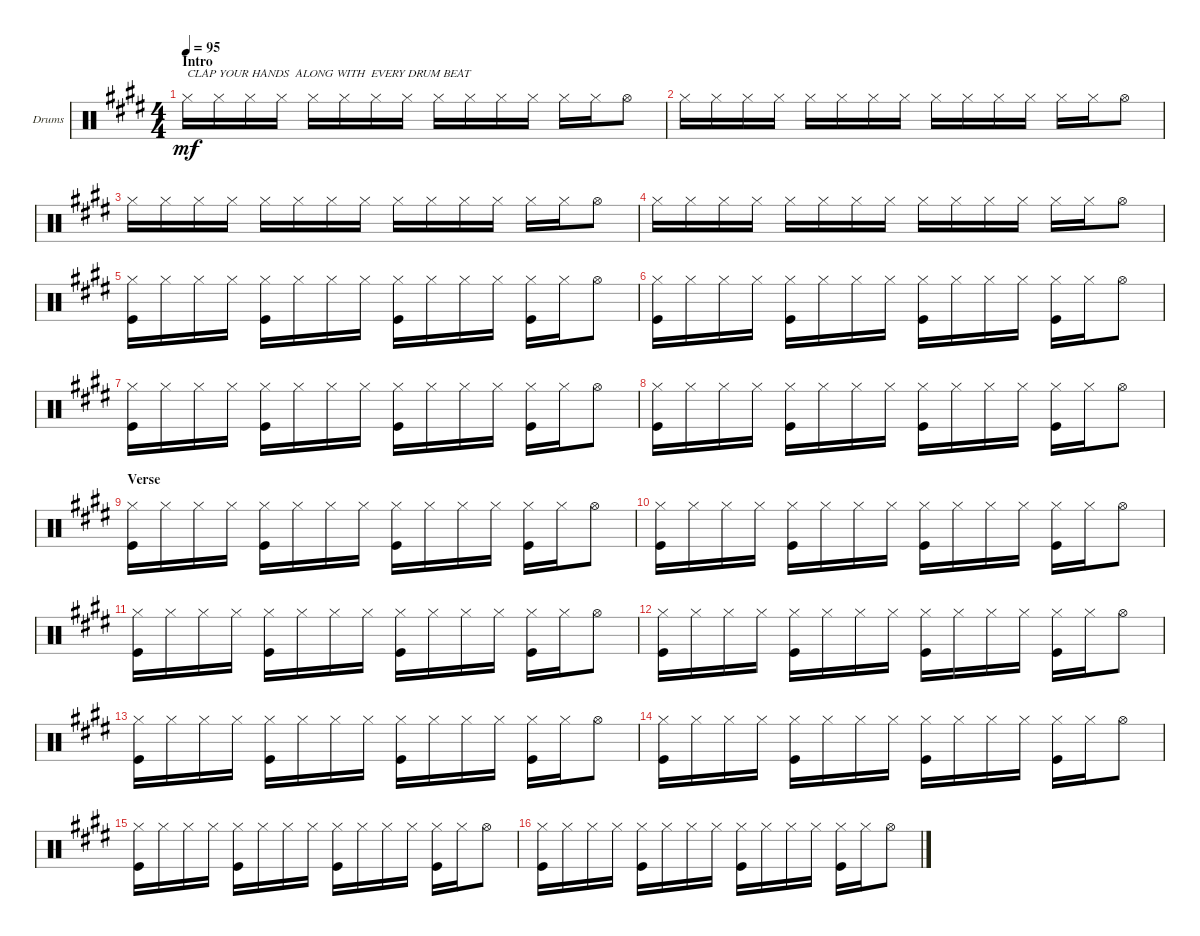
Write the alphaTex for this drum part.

\defaultSystemsLayout 4
\bracketExtendMode groupsimilarinstruments
\firstSystemTrackNameOrientation horizontal
\otherSystemsTrackNameOrientation horizontal
\track ("Drumkit" "Drums") {solo instrument percussion}
\staff {score}
\articulation defaults
\ts (4 4)
\section ("" "Intro")
\tempo 95
\clef neutral
\ks e "Hi-Hat (closed)".16{txt "CLAP YOUR HANDS  ALONG WITH  EVERY DRUM BEAT" dy mf} "Hi-Hat (closed)".16 "Hi-Hat (closed)".16 "Hi-Hat (closed)".16 "Hi-Hat (closed)".16 "Hi-Hat (closed)".16 "Hi-Hat (closed)".16 "Hi-Hat (closed)".16 "Hi-Hat (closed)".16 "Hi-Hat (closed)".16 "Hi-Hat (closed)".16 "Hi-Hat (closed)".16 "Hi-Hat (closed)".16 "Hi-Hat (closed)".16 "Hi-Hat (open)".8
|
"Hi-Hat (closed)".16 "Hi-Hat (closed)".16 "Hi-Hat (closed)".16 "Hi-Hat (closed)".16 "Hi-Hat (closed)".16 "Hi-Hat (closed)".16 "Hi-Hat (closed)".16 "Hi-Hat (closed)".16 "Hi-Hat (closed)".16 "Hi-Hat (closed)".16 "Hi-Hat (closed)".16 "Hi-Hat (closed)".16 "Hi-Hat (closed)".16 "Hi-Hat (closed)".16 "Hi-Hat (open)".8 |
"Hi-Hat (closed)".16 "Hi-Hat (closed)".16 "Hi-Hat (closed)".16 "Hi-Hat (closed)".16 "Hi-Hat (closed)".16 "Hi-Hat (closed)".16 "Hi-Hat (closed)".16 "Hi-Hat (closed)".16 "Hi-Hat (closed)".16 "Hi-Hat (closed)".16 "Hi-Hat (closed)".16 "Hi-Hat (closed)".16 "Hi-Hat (closed)".16 "Hi-Hat (closed)".16 "Hi-Hat (open)".8 |
"Hi-Hat (closed)".16 "Hi-Hat (closed)".16 "Hi-Hat (closed)".16 "Hi-Hat (closed)".16 "Hi-Hat (closed)".16 "Hi-Hat (closed)".16 "Hi-Hat (closed)".16 "Hi-Hat (closed)".16 "Hi-Hat (closed)".16 "Hi-Hat (closed)".16 "Hi-Hat (closed)".16 "Hi-Hat (closed)".16 "Hi-Hat (closed)".16 "Hi-Hat (closed)".16 "Hi-Hat (open)".8 |
("Kick (hit)" "Hi-Hat (closed)").16 "Hi-Hat (closed)".16 "Hi-Hat (closed)".16 "Hi-Hat (closed)".16 ("Hi-Hat (closed)" "Kick (hit)").16 "Hi-Hat (closed)".16 "Hi-Hat (closed)".16 "Hi-Hat (closed)".16 ("Hi-Hat (closed)" "Kick (hit)").16 "Hi-Hat (closed)".16 "Hi-Hat (closed)".16 "Hi-Hat (closed)".16 ("Hi-Hat (closed)" "Kick (hit)").16 "Hi-Hat (closed)".16 "Hi-Hat (open)".8 |
("Kick (hit)" "Hi-Hat (closed)").16 "Hi-Hat (closed)".16 "Hi-Hat (closed)".16 "Hi-Hat (closed)".16 ("Hi-Hat (closed)" "Kick (hit)").16 "Hi-Hat (closed)".16 "Hi-Hat (closed)".16 "Hi-Hat (closed)".16 ("Hi-Hat (closed)" "Kick (hit)").16 "Hi-Hat (closed)".16 "Hi-Hat (closed)".16 "Hi-Hat (closed)".16 ("Hi-Hat (closed)" "Kick (hit)").16 "Hi-Hat (closed)".16 "Hi-Hat (open)".8 |
("Kick (hit)" "Hi-Hat (closed)").16 "Hi-Hat (closed)".16 "Hi-Hat (closed)".16 "Hi-Hat (closed)".16 ("Hi-Hat (closed)" "Kick (hit)").16 "Hi-Hat (closed)".16 "Hi-Hat (closed)".16 "Hi-Hat (closed)".16 ("Hi-Hat (closed)" "Kick (hit)").16 "Hi-Hat (closed)".16 "Hi-Hat (closed)".16 "Hi-Hat (closed)".16 ("Hi-Hat (closed)" "Kick (hit)").16 "Hi-Hat (closed)".16 "Hi-Hat (open)".8 |
("Kick (hit)" "Hi-Hat (closed)").16 "Hi-Hat (closed)".16 "Hi-Hat (closed)".16 "Hi-Hat (closed)".16 ("Hi-Hat (closed)" "Kick (hit)").16 "Hi-Hat (closed)".16 "Hi-Hat (closed)".16 "Hi-Hat (closed)".16 ("Hi-Hat (closed)" "Kick (hit)").16 "Hi-Hat (closed)".16 "Hi-Hat (closed)".16 "Hi-Hat (closed)".16 ("Hi-Hat (closed)" "Kick (hit)").16 "Hi-Hat (closed)".16 "Hi-Hat (open)".8 |
\section ("" "Verse")
("Kick (hit)" "Hi-Hat (closed)").16 "Hi-Hat (closed)".16 "Hi-Hat (closed)".16 "Hi-Hat (closed)".16 ("Hi-Hat (closed)" "Kick (hit)").16 "Hi-Hat (closed)".16 "Hi-Hat (closed)".16 "Hi-Hat (closed)".16 ("Hi-Hat (closed)" "Kick (hit)").16 "Hi-Hat (closed)".16 "Hi-Hat (closed)".16 "Hi-Hat (closed)".16 ("Hi-Hat (closed)" "Kick (hit)").16 "Hi-Hat (closed)".16 "Hi-Hat (open)".8 |
("Kick (hit)" "Hi-Hat (closed)").16 "Hi-Hat (closed)".16 "Hi-Hat (closed)".16 "Hi-Hat (closed)".16 ("Hi-Hat (closed)" "Kick (hit)").16 "Hi-Hat (closed)".16 "Hi-Hat (closed)".16 "Hi-Hat (closed)".16 ("Hi-Hat (closed)" "Kick (hit)").16 "Hi-Hat (closed)".16 "Hi-Hat (closed)".16 "Hi-Hat (closed)".16 ("Hi-Hat (closed)" "Kick (hit)").16 "Hi-Hat (closed)".16 "Hi-Hat (open)".8 |
("Kick (hit)" "Hi-Hat (closed)").16 "Hi-Hat (closed)".16 "Hi-Hat (closed)".16 "Hi-Hat (closed)".16 ("Hi-Hat (closed)" "Kick (hit)").16 "Hi-Hat (closed)".16 "Hi-Hat (closed)".16 "Hi-Hat (closed)".16 ("Hi-Hat (closed)" "Kick (hit)").16 "Hi-Hat (closed)".16 "Hi-Hat (closed)".16 "Hi-Hat (closed)".16 ("Hi-Hat (closed)" "Kick (hit)").16 "Hi-Hat (closed)".16 "Hi-Hat (open)".8 |
("Kick (hit)" "Hi-Hat (closed)").16 "Hi-Hat (closed)".16 "Hi-Hat (closed)".16 "Hi-Hat (closed)".16 ("Hi-Hat (closed)" "Kick (hit)").16 "Hi-Hat (closed)".16 "Hi-Hat (closed)".16 "Hi-Hat (closed)".16 ("Hi-Hat (closed)" "Kick (hit)").16 "Hi-Hat (closed)".16 "Hi-Hat (closed)".16 "Hi-Hat (closed)".16 ("Hi-Hat (closed)" "Kick (hit)").16 "Hi-Hat (closed)".16 "Hi-Hat (open)".8 |
("Kick (hit)" "Hi-Hat (closed)").16 "Hi-Hat (closed)".16 "Hi-Hat (closed)".16 "Hi-Hat (closed)".16 ("Hi-Hat (closed)" "Kick (hit)").16 "Hi-Hat (closed)".16 "Hi-Hat (closed)".16 "Hi-Hat (closed)".16 ("Hi-Hat (closed)" "Kick (hit)").16 "Hi-Hat (closed)".16 "Hi-Hat (closed)".16 "Hi-Hat (closed)".16 ("Hi-Hat (closed)" "Kick (hit)").16 "Hi-Hat (closed)".16 "Hi-Hat (open)".8 |
("Kick (hit)" "Hi-Hat (closed)").16 "Hi-Hat (closed)".16 "Hi-Hat (closed)".16 "Hi-Hat (closed)".16 ("Hi-Hat (closed)" "Kick (hit)").16 "Hi-Hat (closed)".16 "Hi-Hat (closed)".16 "Hi-Hat (closed)".16 ("Hi-Hat (closed)" "Kick (hit)").16 "Hi-Hat (closed)".16 "Hi-Hat (closed)".16 "Hi-Hat (closed)".16 ("Hi-Hat (closed)" "Kick (hit)").16 "Hi-Hat (closed)".16 "Hi-Hat (open)".8 |
("Kick (hit)" "Hi-Hat (closed)").16 "Hi-Hat (closed)".16 "Hi-Hat (closed)".16 "Hi-Hat (closed)".16 ("Hi-Hat (closed)" "Kick (hit)").16 "Hi-Hat (closed)".16 "Hi-Hat (closed)".16 "Hi-Hat (closed)".16 ("Hi-Hat (closed)" "Kick (hit)").16 "Hi-Hat (closed)".16 "Hi-Hat (closed)".16 "Hi-Hat (closed)".16 ("Hi-Hat (closed)" "Kick (hit)").16 "Hi-Hat (closed)".16 "Hi-Hat (open)".8 |
("Kick (hit)" "Hi-Hat (closed)").16 "Hi-Hat (closed)".16 "Hi-Hat (closed)".16 "Hi-Hat (closed)".16 ("Hi-Hat (closed)" "Kick (hit)").16 "Hi-Hat (closed)".16 "Hi-Hat (closed)".16 "Hi-Hat (closed)".16 ("Hi-Hat (closed)" "Kick (hit)").16 "Hi-Hat (closed)".16 "Hi-Hat (closed)".16 "Hi-Hat (closed)".16 ("Hi-Hat (closed)" "Kick (hit)").16 "Hi-Hat (closed)".16 "Hi-Hat (open)".8
